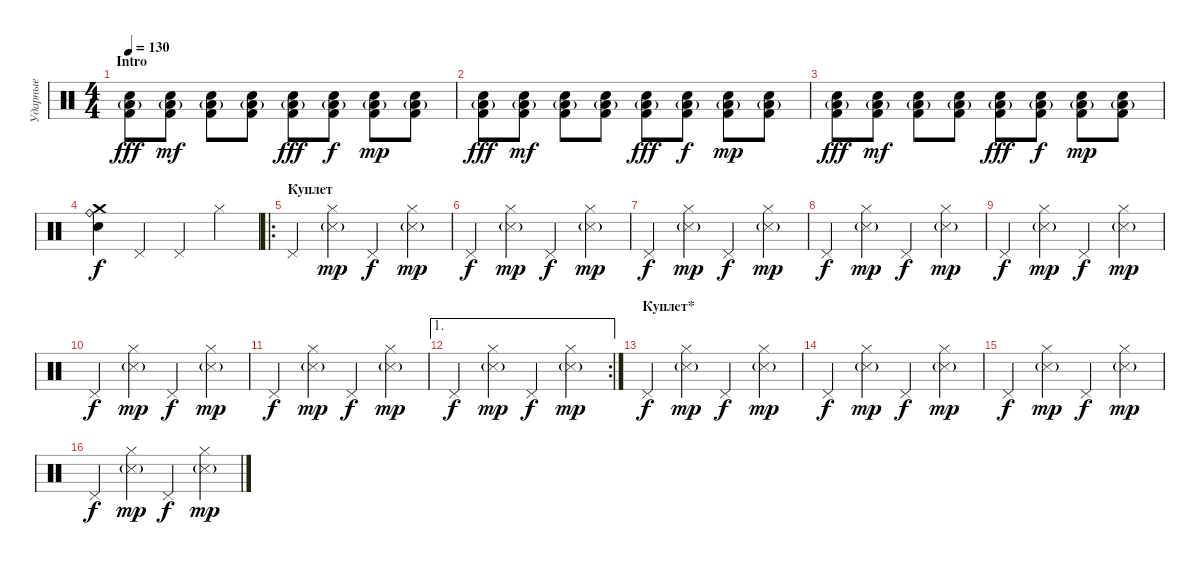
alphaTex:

\track ("Ударные" "Ударные") {instrument percussion}
\staff {score}
\articulation defaults
\ts (4 4)
\section ("" "Intro")
\tempo 130
\clef neutral
\ks c
("Low Tom (hit)"{g} "Kick (hit) 2" "Electric Snare (hit)").8{dy fff volume 9} ("Low Tom (hit)"{g} "Kick (hit) 2" "Electric Snare (hit)").8{dy mf} ("Low Tom (hit)"{g} "Kick (hit) 2" "Electric Snare (hit)").8 ("Low Tom (hit)"{g} "Kick (hit) 2" "Electric Snare (hit)").8 ("Low Tom (hit)"{g} "Kick (hit) 2" "Electric Snare (hit)").8{dy fff} ("Low Tom (hit)"{g} "Kick (hit) 2" "Electric Snare (hit)").8{dy f} ("Low Tom (hit)"{g} "Kick (hit) 2" "Electric Snare (hit)").8{dy mp} ("Low Tom (hit)"{g} "Kick (hit) 2" "Electric Snare (hit)").8 |
("Low Tom (hit)"{g} "Kick (hit) 2" "Electric Snare (hit)").8{dy fff volume 9} ("Low Tom (hit)"{g} "Kick (hit) 2" "Electric Snare (hit)").8{dy mf} ("Low Tom (hit)"{g} "Kick (hit) 2" "Electric Snare (hit)").8 ("Low Tom (hit)"{g} "Kick (hit) 2" "Electric Snare (hit)").8 ("Low Tom (hit)"{g} "Kick (hit) 2" "Electric Snare (hit)").8{dy fff} ("Low Tom (hit)"{g} "Kick (hit) 2" "Electric Snare (hit)").8{dy f} ("Low Tom (hit)"{g} "Kick (hit) 2" "Electric Snare (hit)").8{dy mp} ("Low Tom (hit)"{g} "Kick (hit) 2" "Electric Snare (hit)").8 |
("Low Tom (hit)"{g} "Kick (hit) 2" "Electric Snare (hit)").8{dy fff volume 9} ("Low Tom (hit)"{g} "Kick (hit) 2" "Electric Snare (hit)").8{dy mf} ("Low Tom (hit)"{g} "Kick (hit) 2" "Electric Snare (hit)").8 ("Low Tom (hit)"{g} "Kick (hit) 2" "Electric Snare (hit)").8 ("Low Tom (hit)"{g} "Kick (hit) 2" "Electric Snare (hit)").8{dy fff} ("Low Tom (hit)"{g} "Kick (hit) 2" "Electric Snare (hit)").8{dy f} ("Low Tom (hit)"{g} "Kick (hit) 2" "Electric Snare (hit)").8{dy mp} ("Low Tom (hit)"{g} "Kick (hit) 2" "Electric Snare (hit)").8 |
("Crash medium (hit)" "Ride (bell)" "Snare (hit) 2").4{dy f} "Pedal Hi-Hat (hit)".4 "Pedal Hi-Hat (hit)".4 "Hi-Hat (closed)".4 |
\ro
\section ("" "Куплет")
"Pedal Hi-Hat (hit)".4 ("Metronome (hit)"{g} "Hi-Hat (closed)").4{dy mp} "Pedal Hi-Hat (hit)".4{dy f} ("Metronome (hit)"{g} "Hi-Hat (closed)").4{dy mp} |
"Pedal Hi-Hat (hit)".4{dy f} ("Metronome (hit)"{g} "Hi-Hat (closed)").4{dy mp} "Pedal Hi-Hat (hit)".4{dy f} ("Metronome (hit)"{g} "Hi-Hat (closed)").4{dy mp} |
"Pedal Hi-Hat (hit)".4{dy f} ("Metronome (hit)"{g} "Hi-Hat (closed)").4{dy mp} "Pedal Hi-Hat (hit)".4{dy f} ("Metronome (hit)"{g} "Hi-Hat (closed)").4{dy mp} |
"Pedal Hi-Hat (hit)".4{dy f} ("Metronome (hit)"{g} "Hi-Hat (closed)").4{dy mp} "Pedal Hi-Hat (hit)".4{dy f} ("Metronome (hit)"{g} "Hi-Hat (closed)").4{dy mp} |
"Pedal Hi-Hat (hit)".4{dy f} ("Metronome (hit)"{g} "Hi-Hat (closed)").4{dy mp} "Pedal Hi-Hat (hit)".4{dy f} ("Metronome (hit)"{g} "Hi-Hat (closed)").4{dy mp} |
"Pedal Hi-Hat (hit)".4{dy f} ("Metronome (hit)"{g} "Hi-Hat (closed)").4{dy mp} "Pedal Hi-Hat (hit)".4{dy f} ("Metronome (hit)"{g} "Hi-Hat (closed)").4{dy mp} |
"Pedal Hi-Hat (hit)".4{dy f} ("Metronome (hit)"{g} "Hi-Hat (closed)").4{dy mp} "Pedal Hi-Hat (hit)".4{dy f} ("Metronome (hit)"{g} "Hi-Hat (closed)").4{dy mp} |
\ae 1
\rc 2 "Pedal Hi-Hat (hit)".4{dy f}
("Metronome (hit)"{g} "Hi-Hat (closed)").4{dy mp} "Pedal Hi-Hat (hit)".4{dy f} ("Metronome (hit)"{g} "Hi-Hat (closed)").4{dy mp} |
\section ("" "Куплет*")
"Pedal Hi-Hat (hit)".4{dy f} ("Metronome (hit)"{g} "Hi-Hat (closed)").4{dy mp} "Pedal Hi-Hat (hit)".4{dy f} ("Metronome (hit)"{g} "Hi-Hat (closed)").4{dy mp} |
"Pedal Hi-Hat (hit)".4{dy f} ("Metronome (hit)"{g} "Hi-Hat (closed)").4{dy mp} "Pedal Hi-Hat (hit)".4{dy f} ("Metronome (hit)"{g} "Hi-Hat (closed)").4{dy mp} |
"Pedal Hi-Hat (hit)".4{dy f} ("Metronome (hit)"{g} "Hi-Hat (closed)").4{dy mp} "Pedal Hi-Hat (hit)".4{dy f} ("Metronome (hit)"{g} "Hi-Hat (closed)").4{dy mp} |
"Pedal Hi-Hat (hit)".4{dy f} ("Metronome (hit)"{g} "Hi-Hat (closed)").4{dy mp} "Pedal Hi-Hat (hit)".4{dy f} ("Metronome (hit)"{g} "Hi-Hat (closed)").4{dy mp}
